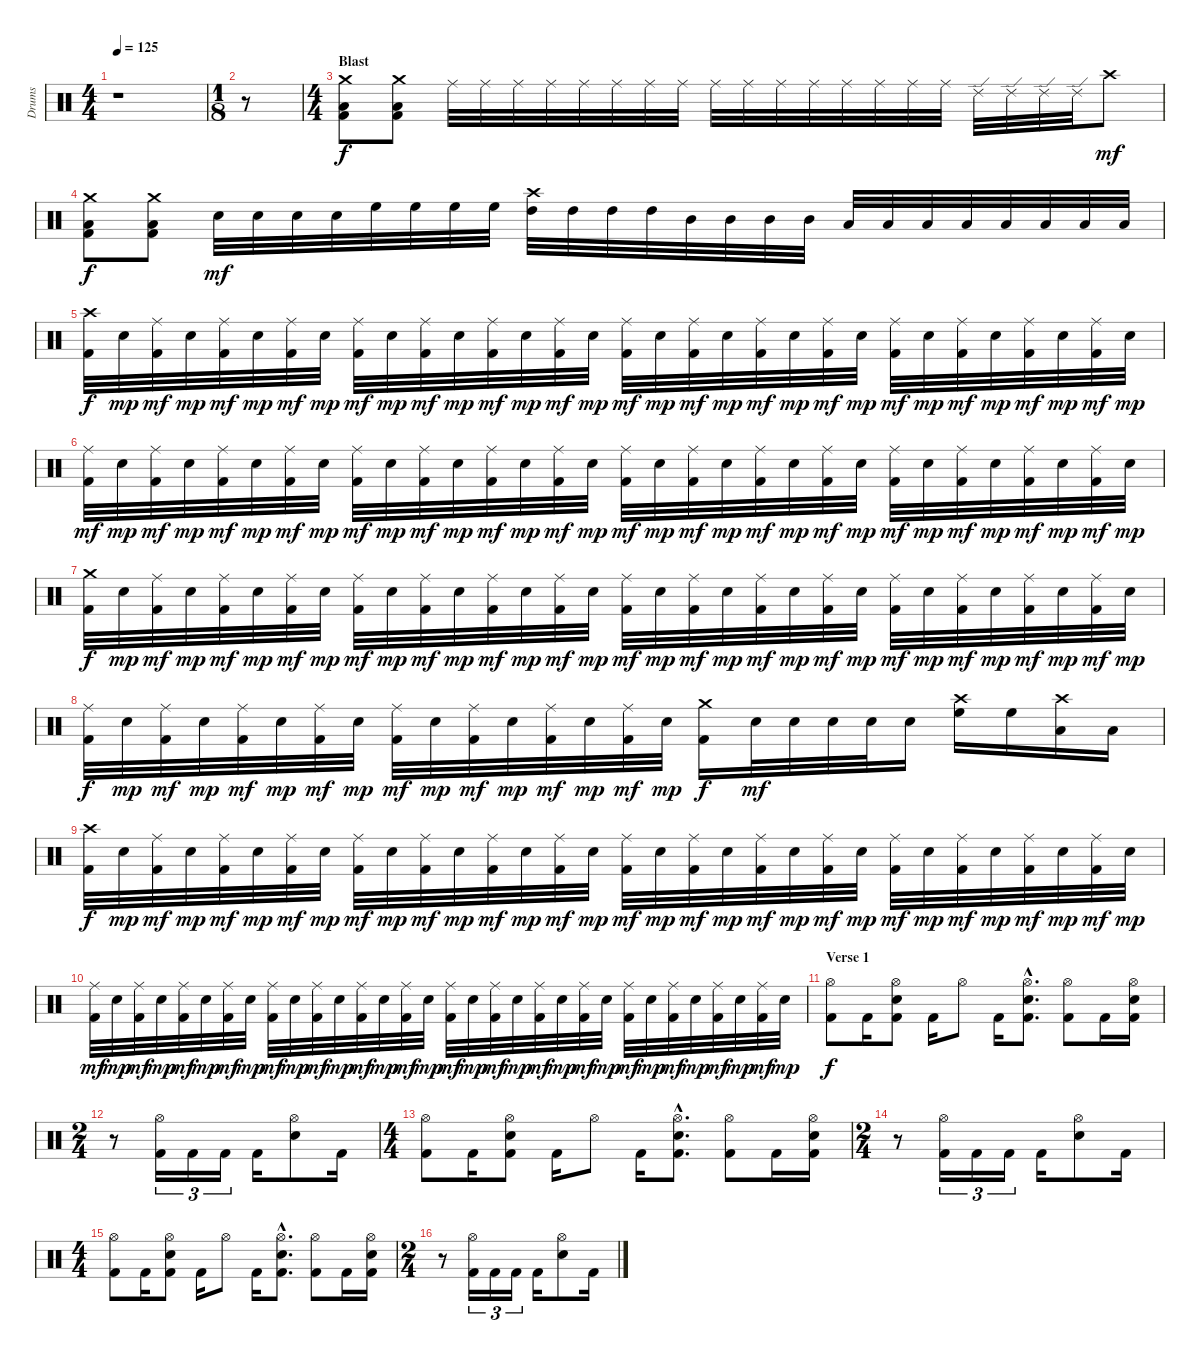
\track ("Drums" "Drums") {instrument percussion}
\staff {score}
\articulation defaults
\ts (4 4)
\tempo 125
\clef neutral
\ks c
r.1{dy f} |
\ts (1 8)
r.8 |
\ts (4 4)
\section ("" "Blast")
("Kick (hit) 2" "Low Floor Tom (hit)" "Crash medium (hit)").8 ("Kick (hit) 2" "Low Floor Tom (hit)" "Crash medium (hit)").8 "Ride (middle)".32 "Ride (middle)".32 "Ride (middle)".32 "Ride (middle)".32 "Ride (middle)".32 "Ride (middle)".32 "Ride (middle)".32 "Ride (middle)".32 "Ride (middle)".32 "Ride (middle)".32 "Ride (middle)".32 "Ride (middle)".32 "Ride (middle)".32 "Ride (middle)".32 "Ride (middle)".32 "Ride (middle)".32 "Ride (edge) 2".32 "Ride (edge) 2".32 "Ride (edge) 2".32 "Ride (edge) 2".32 "Crash high (hit)".8{dy mf} |
("Kick (hit) 2" "Low Floor Tom (hit)" "Crash medium (hit)").8{dy f} ("Kick (hit) 2" "Low Floor Tom (hit)" "Crash medium (hit)").8 "Electric Snare (hit)".32{dy mf} "Electric Snare (hit)".32 "Electric Snare (hit)".32 "Electric Snare (hit)".32 "High Floor Tom (hit)".32 "High Floor Tom (hit)".32 "High Floor Tom (hit)".32 "High Floor Tom (hit)".32 ("High Tom (hit)" "Crash high (hit)").32 "High Tom (hit)".32 "High Tom (hit)".32 "High Tom (hit)".32 "Mid Tom (hit)".32 "Mid Tom (hit)".32 "Mid Tom (hit)".32 "Mid Tom (hit)".32 "Low Tom (hit)".32 "Low Tom (hit)".32 "Low Tom (hit)".32 "Low Tom (hit)".32 "Low Floor Tom (hit)".32 "Low Floor Tom (hit)".32 "Low Floor Tom (hit)".32 "Low Floor Tom (hit)".32 |
("Kick (hit) 2" "Crash high (hit)").32{dy f} "Electric Snare (hit)".32{dy mp} ("Kick (hit) 2" "Ride (middle)").32{dy mf} "Electric Snare (hit)".32{dy mp} ("Kick (hit) 2" "Ride (middle)").32{dy mf} "Electric Snare (hit)".32{dy mp} ("Kick (hit) 2" "Ride (middle)").32{dy mf} "Electric Snare (hit)".32{dy mp} ("Kick (hit) 2" "Ride (middle)").32{dy mf} "Electric Snare (hit)".32{dy mp} ("Kick (hit) 2" "Ride (middle)").32{dy mf} "Electric Snare (hit)".32{dy mp} ("Kick (hit) 2" "Ride (middle)").32{dy mf} "Electric Snare (hit)".32{dy mp} ("Kick (hit) 2" "Ride (middle)").32{dy mf} "Electric Snare (hit)".32{dy mp} ("Kick (hit) 2" "Ride (middle)").32{dy mf} "Electric Snare (hit)".32{dy mp} ("Kick (hit) 2" "Ride (middle)").32{dy mf} "Electric Snare (hit)".32{dy mp} ("Kick (hit) 2" "Ride (middle)").32{dy mf} "Electric Snare (hit)".32{dy mp} ("Kick (hit) 2" "Ride (middle)").32{dy mf} "Electric Snare (hit)".32{dy mp} ("Kick (hit) 2" "Ride (middle)").32{dy mf} "Electric Snare (hit)".32{dy mp} ("Kick (hit) 2" "Ride (middle)").32{dy mf} "Electric Snare (hit)".32{dy mp} ("Kick (hit) 2" "Ride (middle)").32{dy mf} "Electric Snare (hit)".32{dy mp} ("Kick (hit) 2" "Ride (middle)").32{dy mf} "Electric Snare (hit)".32{dy mp} |
("Kick (hit) 2" "Ride (middle)").32{dy mf} "Electric Snare (hit)".32{dy mp} ("Kick (hit) 2" "Ride (middle)").32{dy mf} "Electric Snare (hit)".32{dy mp} ("Kick (hit) 2" "Ride (middle)").32{dy mf} "Electric Snare (hit)".32{dy mp} ("Kick (hit) 2" "Ride (middle)").32{dy mf} "Electric Snare (hit)".32{dy mp} ("Kick (hit) 2" "Ride (middle)").32{dy mf} "Electric Snare (hit)".32{dy mp} ("Kick (hit) 2" "Ride (middle)").32{dy mf} "Electric Snare (hit)".32{dy mp} ("Kick (hit) 2" "Ride (middle)").32{dy mf} "Electric Snare (hit)".32{dy mp} ("Kick (hit) 2" "Ride (middle)").32{dy mf} "Electric Snare (hit)".32{dy mp} ("Kick (hit) 2" "Ride (middle)").32{dy mf} "Electric Snare (hit)".32{dy mp} ("Kick (hit) 2" "Ride (middle)").32{dy mf} "Electric Snare (hit)".32{dy mp} ("Kick (hit) 2" "Ride (middle)").32{dy mf} "Electric Snare (hit)".32{dy mp} ("Kick (hit) 2" "Ride (middle)").32{dy mf} "Electric Snare (hit)".32{dy mp} ("Kick (hit) 2" "Ride (middle)").32{dy mf} "Electric Snare (hit)".32{dy mp} ("Kick (hit) 2" "Ride (middle)").32{dy mf} "Electric Snare (hit)".32{dy mp} ("Kick (hit) 2" "Ride (middle)").32{dy mf} "Electric Snare (hit)".32{dy mp} ("Kick (hit) 2" "Ride (middle)").32{dy mf} "Electric Snare (hit)".32{dy mp} |
("Kick (hit) 2" "Crash medium (hit)").32{dy f} "Electric Snare (hit)".32{dy mp} ("Kick (hit) 2" "Ride (middle)").32{dy mf} "Electric Snare (hit)".32{dy mp} ("Kick (hit) 2" "Ride (middle)").32{dy mf} "Electric Snare (hit)".32{dy mp} ("Kick (hit) 2" "Ride (middle)").32{dy mf} "Electric Snare (hit)".32{dy mp} ("Kick (hit) 2" "Ride (middle)").32{dy mf} "Electric Snare (hit)".32{dy mp} ("Kick (hit) 2" "Ride (middle)").32{dy mf} "Electric Snare (hit)".32{dy mp} ("Kick (hit) 2" "Ride (middle)").32{dy mf} "Electric Snare (hit)".32{dy mp} ("Kick (hit) 2" "Ride (middle)").32{dy mf} "Electric Snare (hit)".32{dy mp} ("Kick (hit) 2" "Ride (middle)").32{dy mf} "Electric Snare (hit)".32{dy mp} ("Kick (hit) 2" "Ride (middle)").32{dy mf} "Electric Snare (hit)".32{dy mp} ("Kick (hit) 2" "Ride (middle)").32{dy mf} "Electric Snare (hit)".32{dy mp} ("Kick (hit) 2" "Ride (middle)").32{dy mf} "Electric Snare (hit)".32{dy mp} ("Kick (hit) 2" "Ride (middle)").32{dy mf} "Electric Snare (hit)".32{dy mp} ("Kick (hit) 2" "Ride (middle)").32{dy mf} "Electric Snare (hit)".32{dy mp} ("Kick (hit) 2" "Ride (middle)").32{dy mf} "Electric Snare (hit)".32{dy mp} ("Kick (hit) 2" "Ride (middle)").32{dy mf} "Electric Snare (hit)".32{dy mp} |
("Kick (hit) 2" "Ride (middle)").32{dy f} "Electric Snare (hit)".32{dy mp} ("Kick (hit) 2" "Ride (middle)").32{dy mf} "Electric Snare (hit)".32{dy mp} ("Kick (hit) 2" "Ride (middle)").32{dy mf} "Electric Snare (hit)".32{dy mp} ("Kick (hit) 2" "Ride (middle)").32{dy mf} "Electric Snare (hit)".32{dy mp} ("Kick (hit) 2" "Ride (middle)").32{dy mf} "Electric Snare (hit)".32{dy mp} ("Kick (hit) 2" "Ride (middle)").32{dy mf} "Electric Snare (hit)".32{dy mp} ("Kick (hit) 2" "Ride (middle)").32{dy mf} "Electric Snare (hit)".32{dy mp} ("Kick (hit) 2" "Ride (middle)").32{dy mf} "Electric Snare (hit)".32{dy mp} ("Kick (hit) 2" "Crash medium (hit)").16{dy f} "Electric Snare (hit)".32{dy mf} "Electric Snare (hit)".32 "Electric Snare (hit)".32 "Electric Snare (hit)".32 "Electric Snare (hit)".16 ("High Floor Tom (hit)" "Crash high (hit)").16 "High Floor Tom (hit)".16 ("Low Tom (hit)" "Crash high (hit)").16 "Low Tom (hit)".16 |
("Kick (hit) 2" "Crash high (hit)").32{dy f} "Electric Snare (hit)".32{dy mp} ("Kick (hit) 2" "Ride (middle)").32{dy mf} "Electric Snare (hit)".32{dy mp} ("Kick (hit) 2" "Ride (middle)").32{dy mf} "Electric Snare (hit)".32{dy mp} ("Kick (hit) 2" "Ride (middle)").32{dy mf} "Electric Snare (hit)".32{dy mp} ("Kick (hit) 2" "Ride (middle)").32{dy mf} "Electric Snare (hit)".32{dy mp} ("Kick (hit) 2" "Ride (middle)").32{dy mf} "Electric Snare (hit)".32{dy mp} ("Kick (hit) 2" "Ride (middle)").32{dy mf} "Electric Snare (hit)".32{dy mp} ("Kick (hit) 2" "Ride (middle)").32{dy mf} "Electric Snare (hit)".32{dy mp} ("Kick (hit) 2" "Ride (middle)").32{dy mf} "Electric Snare (hit)".32{dy mp} ("Kick (hit) 2" "Ride (middle)").32{dy mf} "Electric Snare (hit)".32{dy mp} ("Kick (hit) 2" "Ride (middle)").32{dy mf} "Electric Snare (hit)".32{dy mp} ("Kick (hit) 2" "Ride (middle)").32{dy mf} "Electric Snare (hit)".32{dy mp} ("Kick (hit) 2" "Ride (middle)").32{dy mf} "Electric Snare (hit)".32{dy mp} ("Kick (hit) 2" "Ride (middle)").32{dy mf} "Electric Snare (hit)".32{dy mp} ("Kick (hit) 2" "Ride (middle)").32{dy mf} "Electric Snare (hit)".32{dy mp} ("Kick (hit) 2" "Ride (middle)").32{dy mf} "Electric Snare (hit)".32{dy mp} |
("Kick (hit) 2" "Ride (middle)").32{dy mf} "Electric Snare (hit)".32{dy mp} ("Kick (hit) 2" "Ride (middle)").32{dy mf} "Electric Snare (hit)".32{dy mp} ("Kick (hit) 2" "Ride (middle)").32{dy mf} "Electric Snare (hit)".32{dy mp} ("Kick (hit) 2" "Ride (middle)").32{dy mf} "Electric Snare (hit)".32{dy mp} ("Kick (hit) 2" "Ride (middle)").32{dy mf} "Electric Snare (hit)".32{dy mp} ("Kick (hit) 2" "Ride (middle)").32{dy mf} "Electric Snare (hit)".32{dy mp} ("Kick (hit) 2" "Ride (middle)").32{dy mf} "Electric Snare (hit)".32{dy mp} ("Kick (hit) 2" "Ride (middle)").32{dy mf} "Electric Snare (hit)".32{dy mp} ("Kick (hit) 2" "Ride (middle)").32{dy mf} "Electric Snare (hit)".32{dy mp} ("Kick (hit) 2" "Ride (middle)").32{dy mf} "Electric Snare (hit)".32{dy mp} ("Kick (hit) 2" "Ride (middle)").32{dy mf} "Electric Snare (hit)".32{dy mp} ("Kick (hit) 2" "Ride (middle)").32{dy mf} "Electric Snare (hit)".32{dy mp} ("Kick (hit) 2" "Ride (middle)").32{dy mf} "Electric Snare (hit)".32{dy mp} ("Kick (hit) 2" "Ride (middle)").32{dy mf} "Electric Snare (hit)".32{dy mp} ("Kick (hit) 2" "Ride (middle)").32{dy mf} "Electric Snare (hit)".32{dy mp} ("Kick (hit) 2" "Ride (middle)").32{dy mf} "Electric Snare (hit)".32{dy mp} |
\section ("" "Verse 1")
("Kick (hit) 2" "Hi-Hat (open)").8{dy f} "Kick (hit) 2".16 ("Kick (hit) 2" "Electric Snare (hit)" "Hi-Hat (open)").8 "Kick (hit) 2".16 "Hi-Hat (open)".8 "Kick (hit) 2".16 ("Kick (hit) 2"{hac} "Electric Snare (hit)"{hac} "Hi-Hat (open)"{hac}).8{d} ("Kick (hit) 2" "Hi-Hat (open)").8 "Kick (hit) 2".16 ("Kick (hit) 2" "Electric Snare (hit)" "Hi-Hat (open)").16 |
\ts (2 4)
r.8 ("Kick (hit) 2" "Hi-Hat (open)").16{tu (3 2)} "Kick (hit) 2".16{tu (3 2)} "Kick (hit) 2".16{tu (3 2)} "Kick (hit) 2".16 ("Electric Snare (hit)" "Hi-Hat (open)").8 "Kick (hit) 2".16 |
\ts (4 4)
("Kick (hit) 2" "Hi-Hat (open)").8 "Kick (hit) 2".16 ("Kick (hit) 2" "Electric Snare (hit)" "Hi-Hat (open)").8 "Kick (hit) 2".16 "Hi-Hat (open)".8 "Kick (hit) 2".16 ("Kick (hit) 2"{hac} "Electric Snare (hit)"{hac} "Hi-Hat (open)"{hac}).8{d} ("Kick (hit) 2" "Hi-Hat (open)").8 "Kick (hit) 2".16 ("Kick (hit) 2" "Electric Snare (hit)" "Hi-Hat (open)").16 |
\ts (2 4)
r.8 ("Kick (hit) 2" "Hi-Hat (open)").16{tu (3 2)} "Kick (hit) 2".16{tu (3 2)} "Kick (hit) 2".16{tu (3 2)} "Kick (hit) 2".16 ("Electric Snare (hit)" "Hi-Hat (open)").8 "Kick (hit) 2".16 |
\ts (4 4)
("Kick (hit) 2" "Hi-Hat (open)").8 "Kick (hit) 2".16 ("Kick (hit) 2" "Electric Snare (hit)" "Hi-Hat (open)").8 "Kick (hit) 2".16 "Hi-Hat (open)".8 "Kick (hit) 2".16 ("Kick (hit) 2"{hac} "Electric Snare (hit)"{hac} "Hi-Hat (open)"{hac}).8{d} ("Kick (hit) 2" "Hi-Hat (open)").8 "Kick (hit) 2".16 ("Kick (hit) 2" "Electric Snare (hit)" "Hi-Hat (open)").16 |
\ts (2 4)
r.8 ("Kick (hit) 2" "Hi-Hat (open)").16{tu (3 2)} "Kick (hit) 2".16{tu (3 2)} "Kick (hit) 2".16{tu (3 2)} "Kick (hit) 2".16 ("Electric Snare (hit)" "Hi-Hat (open)").8 "Kick (hit) 2".16
